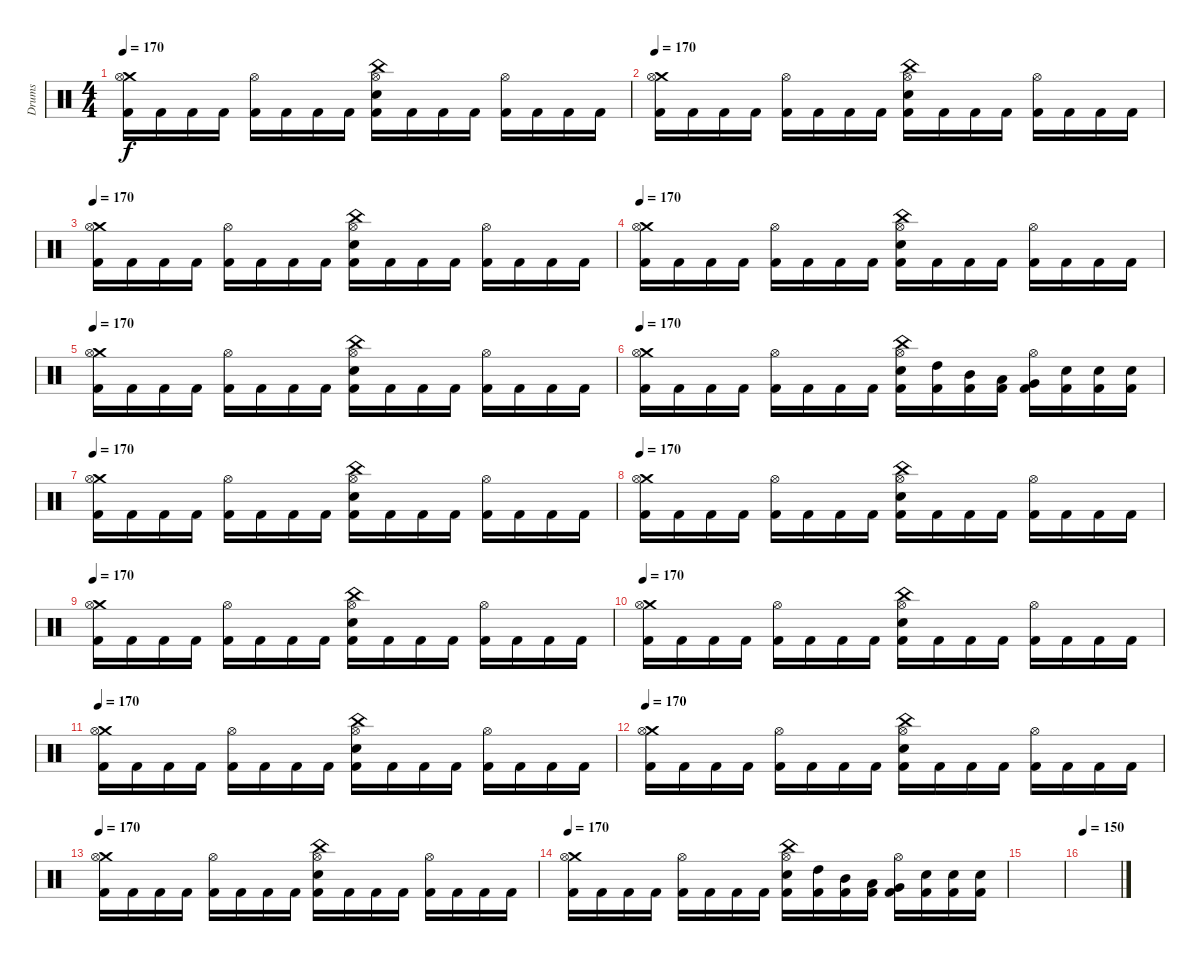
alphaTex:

\track ("Drums" "Drums") {instrument percussion}
\staff {score}
\articulation defaults
\ts (4 4)
\tempo 170
\clef neutral
\ks c
("Crash medium (hit)" "Hi-Hat (open)" "Kick (hit) 2").16{dy f} "Kick (hit) 2".16 "Kick (hit) 2".16 "Kick (hit) 2".16 ("Hi-Hat (open)" "Kick (hit) 2").16 "Kick (hit) 2".16 "Kick (hit) 2".16 "Kick (hit) 2".16 ("China (hit)" "Hi-Hat (open)" "Electric Snare (hit)" "Kick (hit) 2").16 "Kick (hit) 2".16 "Kick (hit) 2".16 "Kick (hit) 2".16 ("Hi-Hat (open)" "Kick (hit) 2").16 "Kick (hit) 2".16 "Kick (hit) 2".16 "Kick (hit) 2".16 |
\tempo 170
("Crash medium (hit)" "Hi-Hat (open)" "Kick (hit) 2").16 "Kick (hit) 2".16 "Kick (hit) 2".16 "Kick (hit) 2".16 ("Hi-Hat (open)" "Kick (hit) 2").16 "Kick (hit) 2".16 "Kick (hit) 2".16 "Kick (hit) 2".16 ("China (hit)" "Hi-Hat (open)" "Electric Snare (hit)" "Kick (hit) 2").16 "Kick (hit) 2".16 "Kick (hit) 2".16 "Kick (hit) 2".16 ("Hi-Hat (open)" "Kick (hit) 2").16 "Kick (hit) 2".16 "Kick (hit) 2".16 "Kick (hit) 2".16 |
\tempo 170
("Crash medium (hit)" "Hi-Hat (open)" "Kick (hit) 2").16 "Kick (hit) 2".16 "Kick (hit) 2".16 "Kick (hit) 2".16 ("Hi-Hat (open)" "Kick (hit) 2").16 "Kick (hit) 2".16 "Kick (hit) 2".16 "Kick (hit) 2".16 ("China (hit)" "Hi-Hat (open)" "Electric Snare (hit)" "Kick (hit) 2").16 "Kick (hit) 2".16 "Kick (hit) 2".16 "Kick (hit) 2".16 ("Hi-Hat (open)" "Kick (hit) 2").16 "Kick (hit) 2".16 "Kick (hit) 2".16 "Kick (hit) 2".16 |
\tempo 170
("Crash medium (hit)" "Hi-Hat (open)" "Kick (hit) 2").16 "Kick (hit) 2".16 "Kick (hit) 2".16 "Kick (hit) 2".16 ("Hi-Hat (open)" "Kick (hit) 2").16 "Kick (hit) 2".16 "Kick (hit) 2".16 "Kick (hit) 2".16 ("China (hit)" "Hi-Hat (open)" "Electric Snare (hit)" "Kick (hit) 2").16 "Kick (hit) 2".16 "Kick (hit) 2".16 "Kick (hit) 2".16 ("Hi-Hat (open)" "Kick (hit) 2").16 "Kick (hit) 2".16 "Kick (hit) 2".16 "Kick (hit) 2".16 |
\tempo 170
("Crash medium (hit)" "Hi-Hat (open)" "Kick (hit) 2").16 "Kick (hit) 2".16 "Kick (hit) 2".16 "Kick (hit) 2".16 ("Hi-Hat (open)" "Kick (hit) 2").16 "Kick (hit) 2".16 "Kick (hit) 2".16 "Kick (hit) 2".16 ("China (hit)" "Hi-Hat (open)" "Electric Snare (hit)" "Kick (hit) 2").16 "Kick (hit) 2".16 "Kick (hit) 2".16 "Kick (hit) 2".16 ("Hi-Hat (open)" "Kick (hit) 2").16 "Kick (hit) 2".16 "Kick (hit) 2".16 "Kick (hit) 2".16 |
\tempo 170
("Crash medium (hit)" "Hi-Hat (open)" "Kick (hit) 2").16 "Kick (hit) 2".16 "Kick (hit) 2".16 "Kick (hit) 2".16 ("Hi-Hat (open)" "Kick (hit) 2").16 "Kick (hit) 2".16 "Kick (hit) 2".16 "Kick (hit) 2".16 ("China (hit)" "Hi-Hat (open)" "Electric Snare (hit)" "Kick (hit) 2").16 ("High Tom (hit)" "Kick (hit) 2").16 ("Mid Tom (hit)" "Kick (hit) 2").16 ("Low Tom (hit)" "Kick (hit) 2").16 ("Hi-Hat (open)" "Very Low Tom (hit)" "Kick (hit) 2").16 ("Electric Snare (hit)" "Kick (hit) 2").16 ("Electric Snare (hit)" "Kick (hit) 2").16 ("Electric Snare (hit)" "Kick (hit) 2").16 |
\tempo 170
("Crash medium (hit)" "Hi-Hat (open)" "Kick (hit) 2").16{volume 8} "Kick (hit) 2".16 "Kick (hit) 2".16 "Kick (hit) 2".16 ("Hi-Hat (open)" "Kick (hit) 2").16 "Kick (hit) 2".16 "Kick (hit) 2".16 "Kick (hit) 2".16 ("China (hit)" "Hi-Hat (open)" "Electric Snare (hit)" "Kick (hit) 2").16 "Kick (hit) 2".16 "Kick (hit) 2".16 "Kick (hit) 2".16 ("Hi-Hat (open)" "Kick (hit) 2").16 "Kick (hit) 2".16 "Kick (hit) 2".16 "Kick (hit) 2".16 |
\tempo 170
("Crash medium (hit)" "Hi-Hat (open)" "Kick (hit) 2").16 "Kick (hit) 2".16 "Kick (hit) 2".16 "Kick (hit) 2".16 ("Hi-Hat (open)" "Kick (hit) 2").16 "Kick (hit) 2".16 "Kick (hit) 2".16 "Kick (hit) 2".16 ("China (hit)" "Hi-Hat (open)" "Electric Snare (hit)" "Kick (hit) 2").16 "Kick (hit) 2".16 "Kick (hit) 2".16 "Kick (hit) 2".16 ("Hi-Hat (open)" "Kick (hit) 2").16 "Kick (hit) 2".16 "Kick (hit) 2".16 "Kick (hit) 2".16 |
\tempo 170
("Crash medium (hit)" "Hi-Hat (open)" "Kick (hit) 2").16 "Kick (hit) 2".16 "Kick (hit) 2".16 "Kick (hit) 2".16 ("Hi-Hat (open)" "Kick (hit) 2").16 "Kick (hit) 2".16 "Kick (hit) 2".16 "Kick (hit) 2".16 ("China (hit)" "Hi-Hat (open)" "Electric Snare (hit)" "Kick (hit) 2").16 "Kick (hit) 2".16 "Kick (hit) 2".16 "Kick (hit) 2".16 ("Hi-Hat (open)" "Kick (hit) 2").16 "Kick (hit) 2".16 "Kick (hit) 2".16 "Kick (hit) 2".16 |
\tempo 170
("Crash medium (hit)" "Hi-Hat (open)" "Kick (hit) 2").16 "Kick (hit) 2".16 "Kick (hit) 2".16 "Kick (hit) 2".16 ("Hi-Hat (open)" "Kick (hit) 2").16 "Kick (hit) 2".16 "Kick (hit) 2".16 "Kick (hit) 2".16 ("China (hit)" "Hi-Hat (open)" "Electric Snare (hit)" "Kick (hit) 2").16 "Kick (hit) 2".16 "Kick (hit) 2".16 "Kick (hit) 2".16 ("Hi-Hat (open)" "Kick (hit) 2").16 "Kick (hit) 2".16 "Kick (hit) 2".16 "Kick (hit) 2".16 |
\tempo 170
("Crash medium (hit)" "Hi-Hat (open)" "Kick (hit) 2").16 "Kick (hit) 2".16 "Kick (hit) 2".16 "Kick (hit) 2".16 ("Hi-Hat (open)" "Kick (hit) 2").16 "Kick (hit) 2".16 "Kick (hit) 2".16 "Kick (hit) 2".16 ("China (hit)" "Hi-Hat (open)" "Electric Snare (hit)" "Kick (hit) 2").16 "Kick (hit) 2".16 "Kick (hit) 2".16 "Kick (hit) 2".16 ("Hi-Hat (open)" "Kick (hit) 2").16 "Kick (hit) 2".16 "Kick (hit) 2".16 "Kick (hit) 2".16 |
\tempo 170
("Crash medium (hit)" "Hi-Hat (open)" "Kick (hit) 2").16{volume 0} "Kick (hit) 2".16 "Kick (hit) 2".16 "Kick (hit) 2".16 ("Hi-Hat (open)" "Kick (hit) 2").16 "Kick (hit) 2".16 "Kick (hit) 2".16 "Kick (hit) 2".16 ("China (hit)" "Hi-Hat (open)" "Electric Snare (hit)" "Kick (hit) 2").16 "Kick (hit) 2".16 "Kick (hit) 2".16 "Kick (hit) 2".16 ("Hi-Hat (open)" "Kick (hit) 2").16 "Kick (hit) 2".16 "Kick (hit) 2".16 "Kick (hit) 2".16 |
\tempo 170
("Crash medium (hit)" "Hi-Hat (open)" "Kick (hit) 2").16 "Kick (hit) 2".16 "Kick (hit) 2".16 "Kick (hit) 2".16 ("Hi-Hat (open)" "Kick (hit) 2").16 "Kick (hit) 2".16 "Kick (hit) 2".16 "Kick (hit) 2".16 ("China (hit)" "Hi-Hat (open)" "Electric Snare (hit)" "Kick (hit) 2").16 "Kick (hit) 2".16 "Kick (hit) 2".16 "Kick (hit) 2".16 ("Hi-Hat (open)" "Kick (hit) 2").16 "Kick (hit) 2".16 "Kick (hit) 2".16 "Kick (hit) 2".16 |
\tempo 170
("Crash medium (hit)" "Hi-Hat (open)" "Kick (hit) 2").16 "Kick (hit) 2".16 "Kick (hit) 2".16 "Kick (hit) 2".16 ("Hi-Hat (open)" "Kick (hit) 2").16 "Kick (hit) 2".16 "Kick (hit) 2".16 "Kick (hit) 2".16 ("China (hit)" "Hi-Hat (open)" "Electric Snare (hit)" "Kick (hit) 2").16 ("High Tom (hit)" "Kick (hit) 2").16 ("Mid Tom (hit)" "Kick (hit) 2").16 ("Low Tom (hit)" "Kick (hit) 2").16 ("Hi-Hat (open)" "Very Low Tom (hit)" "Kick (hit) 2").16 ("Electric Snare (hit)" "Kick (hit) 2").16 ("Electric Snare (hit)" "Kick (hit) 2").16 ("Electric Snare (hit)" "Kick (hit) 2").16 |
|
\tempo 150
